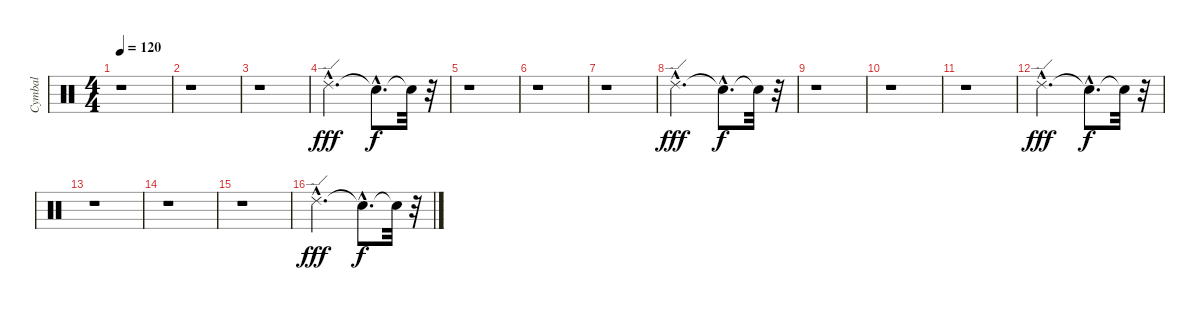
\track ("Cymbal" "Cymbal") {instrument percussion}
\staff {score}
\articulation defaults
\ts (4 4)
\tempo 120
\clef neutral
\ks c
r.1{dy f} |
r.1 |
r.1 |
"Ride (edge) 2"{hac}.2{d dy fff} "Snare (hit)"{hac t}.8{d dy f} "Snare (hit)"{t}.32 r.32 |
r.1 |
r.1 |
r.1 |
"Ride (edge) 2"{hac}.2{d dy fff} "Snare (hit)"{hac t}.8{d dy f} "Snare (hit)"{t}.32 r.32 |
r.1 |
r.1 |
r.1 |
"Ride (edge) 2"{hac}.2{d dy fff} "Snare (hit)"{hac t}.8{d dy f} "Snare (hit)"{t}.32 r.32 |
r.1 |
r.1 |
r.1 |
"Ride (edge) 2"{hac}.2{d dy fff} "Snare (hit)"{hac t}.8{d dy f} "Snare (hit)"{t}.32 r.32
